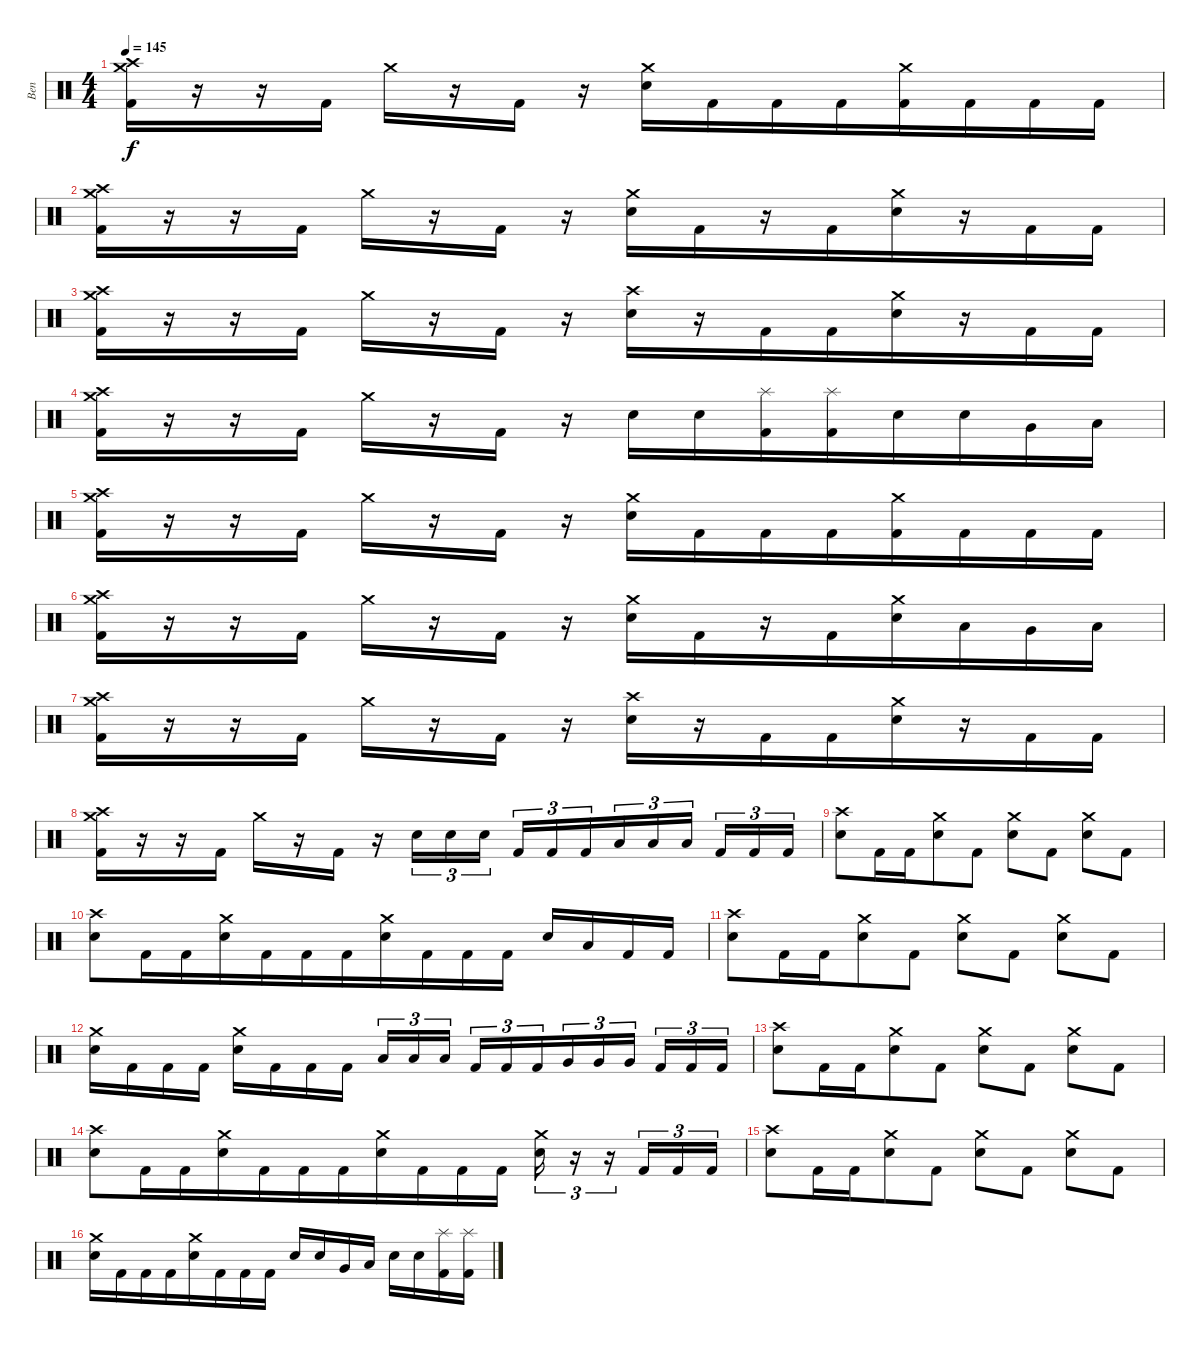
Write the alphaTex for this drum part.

\track ("Ben" "Ben") {instrument percussion}
\staff {score}
\articulation defaults
\ts (4 4)
\tempo 145
\clef neutral
\ks c
("Kick (hit) 2" "Crash medium (hit)" "Crash high (hit)").16{dy f} r.16{beam merge} r.16 "Kick (hit) 2".16 "Crash medium (hit)".16{beam merge} r.16{beam merge} "Kick (hit) 2".16 r.16{beam merge} ("Crash medium (hit)" "Electric Snare (hit)").16 "Kick (hit) 2".16{beam merge} "Kick (hit) 2".16{beam merge} "Kick (hit) 2".16{beam merge} ("Kick (hit) 2" "Crash medium (hit)").16{beam merge} "Kick (hit) 2".16{beam merge} "Kick (hit) 2".16{beam merge} "Kick (hit) 2".16 |
("Kick (hit) 2" "Crash medium (hit)" "Crash high (hit)").16 r.16{beam merge} r.16 "Kick (hit) 2".16 "Crash medium (hit)".16{beam merge} r.16{beam merge} "Kick (hit) 2".16 r.16{beam merge} ("Crash medium (hit)" "Electric Snare (hit)").16 "Kick (hit) 2".16{beam merge} r.16{beam merge} "Kick (hit) 2".16{beam merge} ("Electric Snare (hit)" "Crash medium (hit)").16{beam merge} r.16{beam merge} "Kick (hit) 2".16{beam merge} "Kick (hit) 2".16 |
("Kick (hit) 2" "Crash medium (hit)" "Crash high (hit)").16 r.16{beam merge} r.16 "Kick (hit) 2".16 "Crash medium (hit)".16{beam merge} r.16{beam merge} "Kick (hit) 2".16 r.16{beam merge} ("Crash high (hit)" "Electric Snare (hit)").16{beam merge} r.16{beam merge} "Kick (hit) 2".16{beam merge} "Kick (hit) 2".16{beam merge} ("Electric Snare (hit)" "Crash medium (hit)").16{beam merge} r.16{beam merge} "Kick (hit) 2".16 "Kick (hit) 2".16 |
("Kick (hit) 2" "Crash medium (hit)" "Crash high (hit)").16 r.16{beam merge} r.16 "Kick (hit) 2".16 "Crash medium (hit)".16{beam merge} r.16{beam merge} "Kick (hit) 2".16 r.16{beam merge} "Electric Snare (hit)".16{beam merge} "Electric Snare (hit)".16 ("Kick (hit) 2" "Splash (hit)").16 ("Kick (hit) 2" "Splash (hit)").16{beam merge} "Electric Snare (hit)".16{beam merge} "Electric Snare (hit)".16 "Very Low Tom (hit)".16{beam merge} "Low Floor Tom (hit)".16 |
("Kick (hit) 2" "Crash medium (hit)" "Crash high (hit)").16 r.16{beam merge} r.16 "Kick (hit) 2".16 "Crash medium (hit)".16{beam merge} r.16{beam merge} "Kick (hit) 2".16 r.16{beam merge} ("Crash medium (hit)" "Electric Snare (hit)").16 "Kick (hit) 2".16{beam merge} "Kick (hit) 2".16{beam merge} "Kick (hit) 2".16{beam merge} ("Kick (hit) 2" "Crash medium (hit)").16{beam merge} "Kick (hit) 2".16{beam merge} "Kick (hit) 2".16{beam merge} "Kick (hit) 2".16 |
("Kick (hit) 2" "Crash medium (hit)" "Crash high (hit)").16 r.16{beam merge} r.16 "Kick (hit) 2".16 "Crash medium (hit)".16{beam merge} r.16{beam merge} "Kick (hit) 2".16 r.16{beam merge} ("Crash medium (hit)" "Electric Snare (hit)").16 "Kick (hit) 2".16{beam merge} r.16{beam merge} "Kick (hit) 2".16{beam merge} ("Electric Snare (hit)" "Crash medium (hit)").16{beam merge} "Low Tom (hit)".16{beam merge} "Very Low Tom (hit)".16{beam merge} "Low Floor Tom (hit)".16 |
("Kick (hit) 2" "Crash medium (hit)" "Crash high (hit)").16 r.16{beam merge} r.16 "Kick (hit) 2".16 "Crash medium (hit)".16{beam merge} r.16{beam merge} "Kick (hit) 2".16 r.16{beam merge} ("Crash high (hit)" "Electric Snare (hit)").16{beam merge} r.16{beam merge} "Kick (hit) 2".16{beam merge} "Kick (hit) 2".16{beam merge} ("Electric Snare (hit)" "Crash medium (hit)").16{beam merge} r.16{beam merge} "Kick (hit) 2".16 "Kick (hit) 2".16 |
("Kick (hit) 2" "Crash medium (hit)" "Crash high (hit)").16 r.16{beam merge} r.16 "Kick (hit) 2".16 "Crash medium (hit)".16{beam merge} r.16{beam merge} "Kick (hit) 2".16 r.16{beam merge} "Electric Snare (hit)".16{tu (3 2) beam merge} "Electric Snare (hit)".16{tu (3 2)} "Electric Snare (hit)".16{tu (3 2) beam splitsecondary} "Kick (hit) 2".16{tu (3 2)} "Kick (hit) 2".16{tu (3 2) beam merge} "Kick (hit) 2".16{tu (3 2) beam merge} "Low Tom (hit)".16{tu (3 2)} "Low Tom (hit)".16{tu (3 2)} "Low Tom (hit)".16{tu (3 2) beam splitsecondary} "Kick (hit) 2".16{tu (3 2) beam merge} "Kick (hit) 2".16{tu (3 2) beam merge} "Kick (hit) 2".16{tu (3 2)} |
("Crash high (hit)" "Electric Snare (hit)").8 "Kick (hit) 2".16{beam merge} "Kick (hit) 2".16{beam merge} ("Crash medium (hit)" "Electric Snare (hit)").8 "Kick (hit) 2".8 ("Crash medium (hit)" "Electric Snare (hit)").8 "Kick (hit) 2".8 ("Crash medium (hit)" "Electric Snare (hit)").8 "Kick (hit) 2".8 |
("Crash high (hit)" "Electric Snare (hit)").8 "Kick (hit) 2".16{beam merge} "Kick (hit) 2".16{beam merge} ("Crash medium (hit)" "Electric Snare (hit)").16 "Kick (hit) 2".16{beam merge} "Kick (hit) 2".16 "Kick (hit) 2".16{beam merge} ("Electric Snare (hit)" "Crash medium (hit)").16{beam merge} "Kick (hit) 2".16 "Kick (hit) 2".16{beam merge} "Kick (hit) 2".16 "Electric Snare (hit)".16{beam merge} "Low Tom (hit)".16{beam merge} "Kick (hit) 2".16{beam merge} "Kick (hit) 2".16 |
("Crash high (hit)" "Electric Snare (hit)").8 "Kick (hit) 2".16{beam merge} "Kick (hit) 2".16{beam merge} ("Crash medium (hit)" "Electric Snare (hit)").8 "Kick (hit) 2".8 ("Crash medium (hit)" "Electric Snare (hit)").8 "Kick (hit) 2".8 ("Crash medium (hit)" "Electric Snare (hit)").8 "Kick (hit) 2".8 |
("Crash medium (hit)" "Electric Snare (hit)").16 "Kick (hit) 2".16 "Kick (hit) 2".16{beam merge} "Kick (hit) 2".16 ("Crash medium (hit)" "Electric Snare (hit)").16{beam merge} "Kick (hit) 2".16 "Kick (hit) 2".16 "Kick (hit) 2".16 "Low Tom (hit)".16{tu (3 2) beam merge} "Low Tom (hit)".16{tu (3 2)} "Low Tom (hit)".16{tu (3 2) beam splitsecondary} "Kick (hit) 2".16{tu (3 2)} "Kick (hit) 2".16{tu (3 2) beam merge} "Kick (hit) 2".16{tu (3 2) beam merge} "Very Low Tom (hit)".16{tu (3 2)} "Very Low Tom (hit)".16{tu (3 2) beam merge} "Very Low Tom (hit)".16{tu (3 2) beam splitsecondary} "Kick (hit) 2".16{tu (3 2)} "Kick (hit) 2".16{tu (3 2) beam merge} "Kick (hit) 2".16{tu (3 2)} |
("Crash high (hit)" "Electric Snare (hit)").8 "Kick (hit) 2".16{beam merge} "Kick (hit) 2".16{beam merge} ("Crash medium (hit)" "Electric Snare (hit)").8 "Kick (hit) 2".8 ("Crash medium (hit)" "Electric Snare (hit)").8 "Kick (hit) 2".8 ("Crash medium (hit)" "Electric Snare (hit)").8 "Kick (hit) 2".8 |
("Crash high (hit)" "Electric Snare (hit)").8 "Kick (hit) 2".16{beam merge} "Kick (hit) 2".16{beam merge} ("Crash medium (hit)" "Electric Snare (hit)").16 "Kick (hit) 2".16{beam merge} "Kick (hit) 2".16 "Kick (hit) 2".16{beam merge} ("Electric Snare (hit)" "Crash medium (hit)").16{beam merge} "Kick (hit) 2".16 "Kick (hit) 2".16{beam merge} "Kick (hit) 2".16 ("Crash medium (hit)" "Electric Snare (hit)").16{tu (3 2)} r.16{tu (3 2)} r.16{tu (3 2) beam merge} "Kick (hit) 2".16{tu (3 2) beam merge} "Kick (hit) 2".16{tu (3 2) beam merge} "Kick (hit) 2".16{tu (3 2)} |
("Crash high (hit)" "Electric Snare (hit)").8 "Kick (hit) 2".16{beam merge} "Kick (hit) 2".16{beam merge} ("Crash medium (hit)" "Electric Snare (hit)").8 "Kick (hit) 2".8 ("Crash medium (hit)" "Electric Snare (hit)").8 "Kick (hit) 2".8 ("Crash medium (hit)" "Electric Snare (hit)").8 "Kick (hit) 2".8 |
("Crash medium (hit)" "Electric Snare (hit)").16 "Kick (hit) 2".16{beam merge} "Kick (hit) 2".16 "Kick (hit) 2".16{beam merge} ("Electric Snare (hit)" "Crash medium (hit)").16{beam merge} "Kick (hit) 2".16 "Kick (hit) 2".16{beam merge} "Kick (hit) 2".16 "Electric Snare (hit)".16{beam merge} "Electric Snare (hit)".16{beam merge} "Very Low Tom (hit)".16{beam merge} "Low Floor Tom (hit)".16 "Electric Snare (hit)".16{beam merge} "Electric Snare (hit)".16{beam merge} ("Kick (hit) 2" "Splash (hit)").16 ("Kick (hit) 2" "Splash (hit)").16
